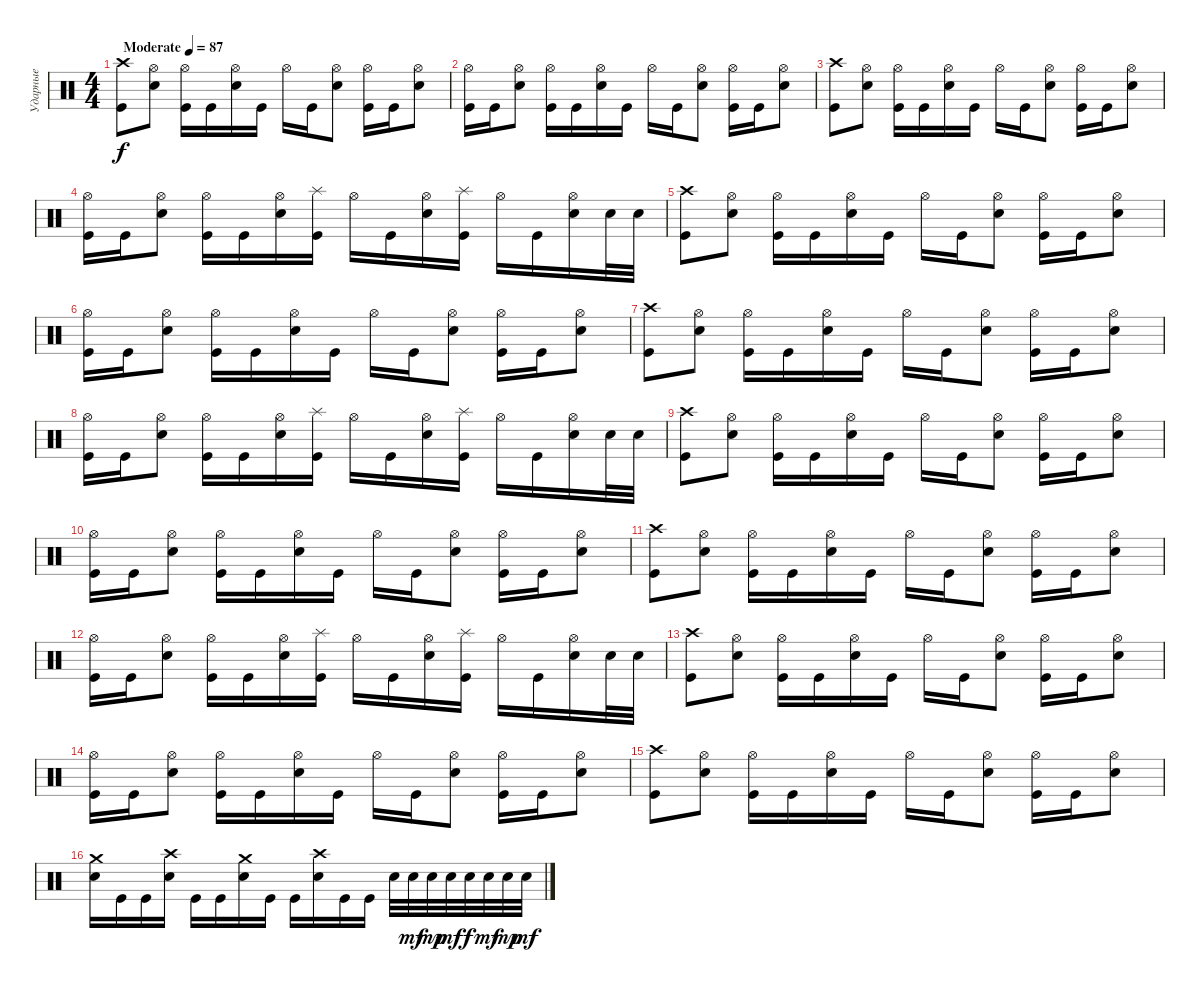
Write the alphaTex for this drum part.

\track ("Ударные" "Ударные") {instrument percussion}
\staff {score}
\articulation defaults
\ts (4 4)
\tempo (87 "Moderate")
\clef neutral
\ks c
("Crash high (hit)" "Kick (hit)").8{dy f} ("Hi-Hat (open)" "Snare (hit) 2").8 ("Hi-Hat (open)" "Kick (hit)").16 "Kick (hit)".16 ("Hi-Hat (open)" "Snare (hit) 2").16 "Kick (hit)".16 "Hi-Hat (open)".16 "Kick (hit)".16 ("Hi-Hat (open)" "Snare (hit) 2").8 ("Hi-Hat (open)" "Kick (hit)").16 "Kick (hit)".16 ("Hi-Hat (open)" "Snare (hit) 2").8 |
("Hi-Hat (open)" "Kick (hit)").16 "Kick (hit)".16 ("Hi-Hat (open)" "Snare (hit) 2").8 ("Hi-Hat (open)" "Kick (hit)").16 "Kick (hit)".16 ("Hi-Hat (open)" "Snare (hit) 2").16 "Kick (hit)".16 "Hi-Hat (open)".16 "Kick (hit)".16 ("Hi-Hat (open)" "Snare (hit) 2").8 ("Hi-Hat (open)" "Kick (hit)").16 "Kick (hit)".16 ("Hi-Hat (open)" "Snare (hit) 2").8 |
("Crash high (hit)" "Kick (hit)").8 ("Hi-Hat (open)" "Snare (hit) 2").8 ("Hi-Hat (open)" "Kick (hit)").16 "Kick (hit)".16 ("Hi-Hat (open)" "Snare (hit) 2").16 "Kick (hit)".16 "Hi-Hat (open)".16 "Kick (hit)".16 ("Hi-Hat (open)" "Snare (hit) 2").8 ("Hi-Hat (open)" "Kick (hit)").16 "Kick (hit)".16 ("Hi-Hat (open)" "Snare (hit) 2").8 |
("Hi-Hat (open)" "Kick (hit)").16 "Kick (hit)".16 ("Hi-Hat (open)" "Snare (hit) 2").8 ("Hi-Hat (open)" "Kick (hit)").16 "Kick (hit)".16 ("Hi-Hat (open)" "Snare (hit) 2").16 ("Splash (hit)" "Kick (hit)").16 "Hi-Hat (open)".16 "Kick (hit)".16 ("Hi-Hat (open)" "Snare (hit) 2").16 ("Splash (hit)" "Kick (hit)").16 "Hi-Hat (open)".16 "Kick (hit)".16 ("Hi-Hat (open)" "Snare (hit) 2").16 "Snare (hit) 2".32 "Snare (hit) 2".32 |
("Crash high (hit)" "Kick (hit)").8 ("Hi-Hat (open)" "Snare (hit) 2").8 ("Hi-Hat (open)" "Kick (hit)").16 "Kick (hit)".16 ("Hi-Hat (open)" "Snare (hit) 2").16 "Kick (hit)".16 "Hi-Hat (open)".16 "Kick (hit)".16 ("Hi-Hat (open)" "Snare (hit) 2").8 ("Hi-Hat (open)" "Kick (hit)").16 "Kick (hit)".16 ("Hi-Hat (open)" "Snare (hit) 2").8 |
("Hi-Hat (open)" "Kick (hit)").16 "Kick (hit)".16 ("Hi-Hat (open)" "Snare (hit) 2").8 ("Hi-Hat (open)" "Kick (hit)").16 "Kick (hit)".16 ("Hi-Hat (open)" "Snare (hit) 2").16 "Kick (hit)".16 "Hi-Hat (open)".16 "Kick (hit)".16 ("Hi-Hat (open)" "Snare (hit) 2").8 ("Hi-Hat (open)" "Kick (hit)").16 "Kick (hit)".16 ("Hi-Hat (open)" "Snare (hit) 2").8 |
("Crash high (hit)" "Kick (hit)").8 ("Hi-Hat (open)" "Snare (hit) 2").8 ("Hi-Hat (open)" "Kick (hit)").16 "Kick (hit)".16 ("Hi-Hat (open)" "Snare (hit) 2").16 "Kick (hit)".16 "Hi-Hat (open)".16 "Kick (hit)".16 ("Hi-Hat (open)" "Snare (hit) 2").8 ("Hi-Hat (open)" "Kick (hit)").16 "Kick (hit)".16 ("Hi-Hat (open)" "Snare (hit) 2").8 |
("Hi-Hat (open)" "Kick (hit)").16 "Kick (hit)".16 ("Hi-Hat (open)" "Snare (hit) 2").8 ("Hi-Hat (open)" "Kick (hit)").16 "Kick (hit)".16 ("Hi-Hat (open)" "Snare (hit) 2").16 ("Splash (hit)" "Kick (hit)").16 "Hi-Hat (open)".16 "Kick (hit)".16 ("Hi-Hat (open)" "Snare (hit) 2").16 ("Splash (hit)" "Kick (hit)").16 "Hi-Hat (open)".16 "Kick (hit)".16 ("Hi-Hat (open)" "Snare (hit) 2").16 "Snare (hit) 2".32 "Snare (hit) 2".32 |
("Crash high (hit)" "Kick (hit)").8 ("Hi-Hat (open)" "Snare (hit) 2").8 ("Hi-Hat (open)" "Kick (hit)").16 "Kick (hit)".16 ("Hi-Hat (open)" "Snare (hit) 2").16 "Kick (hit)".16 "Hi-Hat (open)".16 "Kick (hit)".16 ("Hi-Hat (open)" "Snare (hit) 2").8 ("Hi-Hat (open)" "Kick (hit)").16 "Kick (hit)".16 ("Hi-Hat (open)" "Snare (hit) 2").8 |
("Hi-Hat (open)" "Kick (hit)").16 "Kick (hit)".16 ("Hi-Hat (open)" "Snare (hit) 2").8 ("Hi-Hat (open)" "Kick (hit)").16 "Kick (hit)".16 ("Hi-Hat (open)" "Snare (hit) 2").16 "Kick (hit)".16 "Hi-Hat (open)".16 "Kick (hit)".16 ("Hi-Hat (open)" "Snare (hit) 2").8 ("Hi-Hat (open)" "Kick (hit)").16 "Kick (hit)".16 ("Hi-Hat (open)" "Snare (hit) 2").8 |
("Crash high (hit)" "Kick (hit)").8 ("Hi-Hat (open)" "Snare (hit) 2").8 ("Hi-Hat (open)" "Kick (hit)").16 "Kick (hit)".16 ("Hi-Hat (open)" "Snare (hit) 2").16 "Kick (hit)".16 "Hi-Hat (open)".16 "Kick (hit)".16 ("Hi-Hat (open)" "Snare (hit) 2").8 ("Hi-Hat (open)" "Kick (hit)").16 "Kick (hit)".16 ("Hi-Hat (open)" "Snare (hit) 2").8 |
("Hi-Hat (open)" "Kick (hit)").16 "Kick (hit)".16 ("Hi-Hat (open)" "Snare (hit) 2").8 ("Hi-Hat (open)" "Kick (hit)").16 "Kick (hit)".16 ("Hi-Hat (open)" "Snare (hit) 2").16 ("Splash (hit)" "Kick (hit)").16 "Hi-Hat (open)".16 "Kick (hit)".16 ("Hi-Hat (open)" "Snare (hit) 2").16 ("Splash (hit)" "Kick (hit)").16 "Hi-Hat (open)".16 "Kick (hit)".16 ("Hi-Hat (open)" "Snare (hit) 2").16 "Snare (hit) 2".32 "Snare (hit) 2".32 |
("Crash high (hit)" "Kick (hit)").8 ("Hi-Hat (open)" "Snare (hit) 2").8 ("Hi-Hat (open)" "Kick (hit)").16 "Kick (hit)".16 ("Hi-Hat (open)" "Snare (hit) 2").16 "Kick (hit)".16 "Hi-Hat (open)".16 "Kick (hit)".16 ("Hi-Hat (open)" "Snare (hit) 2").8 ("Hi-Hat (open)" "Kick (hit)").16 "Kick (hit)".16 ("Hi-Hat (open)" "Snare (hit) 2").8 |
("Hi-Hat (open)" "Kick (hit)").16 "Kick (hit)".16 ("Hi-Hat (open)" "Snare (hit) 2").8 ("Hi-Hat (open)" "Kick (hit)").16 "Kick (hit)".16 ("Hi-Hat (open)" "Snare (hit) 2").16 "Kick (hit)".16 "Hi-Hat (open)".16 "Kick (hit)".16 ("Hi-Hat (open)" "Snare (hit) 2").8 ("Hi-Hat (open)" "Kick (hit)").16 "Kick (hit)".16 ("Hi-Hat (open)" "Snare (hit) 2").8 |
("Crash high (hit)" "Kick (hit)").8 ("Hi-Hat (open)" "Snare (hit) 2").8 ("Hi-Hat (open)" "Kick (hit)").16 "Kick (hit)".16 ("Hi-Hat (open)" "Snare (hit) 2").16 "Kick (hit)".16 "Hi-Hat (open)".16 "Kick (hit)".16 ("Hi-Hat (open)" "Snare (hit) 2").8 ("Hi-Hat (open)" "Kick (hit)").16 "Kick (hit)".16 ("Hi-Hat (open)" "Snare (hit) 2").8 |
("Crash medium (hit)" "Snare (hit) 2").16 "Kick (hit)".16 "Kick (hit)".16 ("Crash high (hit)" "Snare (hit) 2").16 "Kick (hit)".16 "Kick (hit)".16 ("Crash medium (hit)" "Snare (hit) 2").16 "Kick (hit)".16 "Kick (hit)".16 ("Crash high (hit)" "Snare (hit) 2").16 "Kick (hit)".16 "Kick (hit)".16 "Snare (hit) 2".32 "Snare (hit) 2".32{dy mf} "Snare (hit) 2".32{dy mp} "Snare (hit) 2".32{dy mf} "Snare (hit) 2".32{dy f} "Snare (hit) 2".32{dy mf} "Snare (hit) 2".32{dy mp} "Snare (hit) 2".32{dy mf}
